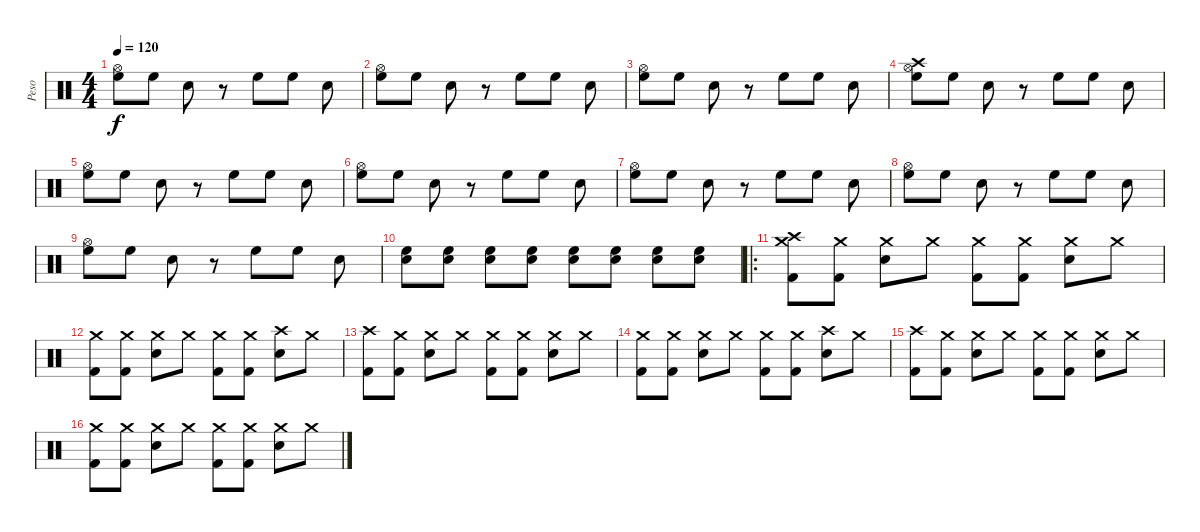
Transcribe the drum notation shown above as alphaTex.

\track ("Peso" "Peso") {instrument percussion}
\staff {score}
\articulation defaults
\ts (4 4)
\tempo 120
\clef neutral
\ks c
("Hi-Hat (open)" "High Floor Tom (hit)").8{dy f} "High Floor Tom (hit)".8 "Snare (hit) 2".8 r.8 "High Floor Tom (hit)".8 "High Floor Tom (hit)".8 "Snare (hit) 2".8 |
("Hi-Hat (open)" "High Floor Tom (hit)").8 "High Floor Tom (hit)".8 "Snare (hit) 2".8 r.8 "High Floor Tom (hit)".8 "High Floor Tom (hit)".8 "Snare (hit) 2".8 |
("Hi-Hat (open)" "High Floor Tom (hit)").8 "High Floor Tom (hit)".8 "Snare (hit) 2".8 r.8 "High Floor Tom (hit)".8 "High Floor Tom (hit)".8 "Snare (hit) 2".8 |
("Crash high (hit)" "Hi-Hat (open)" "High Floor Tom (hit)").8 "High Floor Tom (hit)".8 "Snare (hit) 2".8 r.8 "High Floor Tom (hit)".8 "High Floor Tom (hit)".8 "Snare (hit) 2".8 |
("Hi-Hat (open)" "High Floor Tom (hit)").8 "High Floor Tom (hit)".8 "Snare (hit) 2".8 r.8 "High Floor Tom (hit)".8 "High Floor Tom (hit)".8 "Snare (hit) 2".8 |
("Hi-Hat (open)" "High Floor Tom (hit)").8 "High Floor Tom (hit)".8 "Snare (hit) 2".8 r.8 "High Floor Tom (hit)".8 "High Floor Tom (hit)".8 "Snare (hit) 2".8 |
("Hi-Hat (open)" "High Floor Tom (hit)").8 "High Floor Tom (hit)".8 "Snare (hit) 2".8 r.8 "High Floor Tom (hit)".8 "High Floor Tom (hit)".8 "Snare (hit) 2".8 |
("Hi-Hat (open)" "High Floor Tom (hit)").8 "High Floor Tom (hit)".8 "Snare (hit) 2".8 r.8 "High Floor Tom (hit)".8 "High Floor Tom (hit)".8 "Snare (hit) 2".8 |
("Hi-Hat (open)" "High Floor Tom (hit)").8 "High Floor Tom (hit)".8 "Snare (hit) 2".8 r.8 "High Floor Tom (hit)".8 "High Floor Tom (hit)".8 "Snare (hit) 2".8 |
("High Floor Tom (hit)" "Snare (hit) 2").8{volume 7} ("High Floor Tom (hit)" "Snare (hit) 2").8 ("High Floor Tom (hit)" "Snare (hit) 2").8{volume 10} ("High Floor Tom (hit)" "Snare (hit) 2").8 ("High Floor Tom (hit)" "Snare (hit) 2").8{volume 16} ("High Floor Tom (hit)" "Snare (hit) 2").8 ("High Floor Tom (hit)" "Snare (hit) 2").8 ("High Floor Tom (hit)" "Snare (hit) 2").8 |
\ro
("Crash high (hit)" "Crash medium (hit)" "Kick (hit) 2").8 ("Crash medium (hit)" "Kick (hit) 2").8 ("Crash medium (hit)" "Snare (hit) 2").8 "Crash medium (hit)".8 ("Crash medium (hit)" "Kick (hit) 2").8 ("Crash medium (hit)" "Kick (hit) 2").8 ("Crash medium (hit)" "Snare (hit) 2").8 "Crash medium (hit)".8 |
("Crash medium (hit)" "Kick (hit) 2").8 ("Crash medium (hit)" "Kick (hit) 2").8 ("Crash medium (hit)" "Snare (hit) 2").8 "Crash medium (hit)".8 ("Crash medium (hit)" "Kick (hit) 2").8 ("Crash medium (hit)" "Kick (hit) 2").8 ("Crash high (hit)" "Snare (hit) 2").8 "Crash medium (hit)".8 |
("Crash high (hit)" "Kick (hit) 2").8 ("Crash medium (hit)" "Kick (hit) 2").8 ("Crash medium (hit)" "Snare (hit) 2").8 "Crash medium (hit)".8 ("Crash medium (hit)" "Kick (hit) 2").8 ("Crash medium (hit)" "Kick (hit) 2").8 ("Crash medium (hit)" "Snare (hit) 2").8 "Crash medium (hit)".8 |
("Crash medium (hit)" "Kick (hit) 2").8 ("Crash medium (hit)" "Kick (hit) 2").8 ("Crash medium (hit)" "Snare (hit) 2").8 "Crash medium (hit)".8 ("Crash medium (hit)" "Kick (hit) 2").8 ("Crash medium (hit)" "Kick (hit) 2").8 ("Crash high (hit)" "Snare (hit) 2").8 "Crash medium (hit)".8 |
("Crash high (hit)" "Kick (hit) 2").8 ("Crash medium (hit)" "Kick (hit) 2").8 ("Crash medium (hit)" "Snare (hit) 2").8 "Crash medium (hit)".8 ("Crash medium (hit)" "Kick (hit) 2").8 ("Crash medium (hit)" "Kick (hit) 2").8 ("Crash medium (hit)" "Snare (hit) 2").8 "Crash medium (hit)".8 |
("Crash medium (hit)" "Kick (hit) 2").8 ("Crash medium (hit)" "Kick (hit) 2").8 ("Crash medium (hit)" "Snare (hit) 2").8 "Crash medium (hit)".8 ("Crash medium (hit)" "Kick (hit) 2").8 ("Crash medium (hit)" "Kick (hit) 2").8 ("Crash medium (hit)" "Snare (hit) 2").8 "Crash medium (hit)".8
